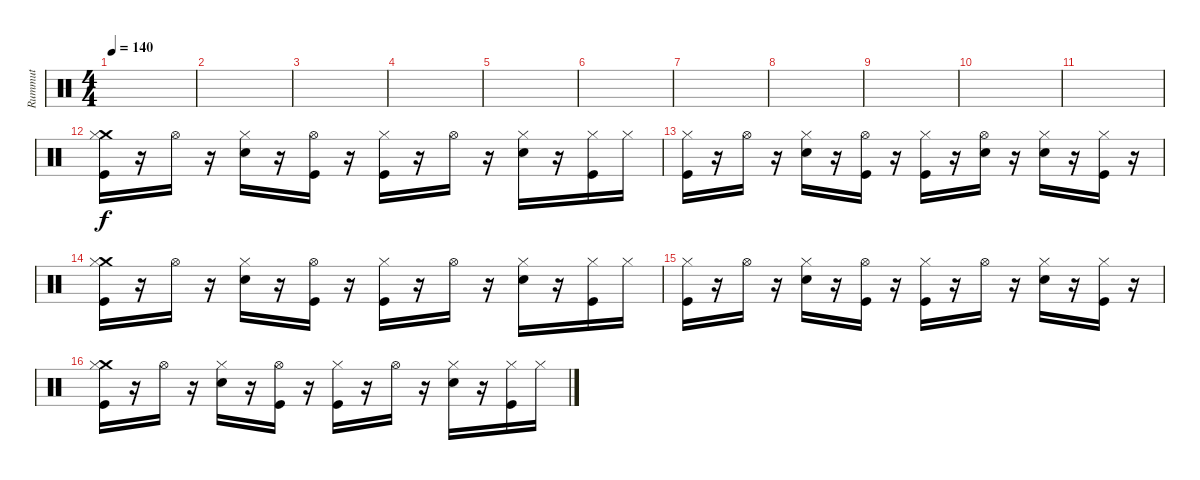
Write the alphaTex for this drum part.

\track ("Rummut" "Rummut") {instrument percussion}
\staff {score}
\articulation defaults
\ts (4 4)
\tempo 140
\clef neutral
\ks c
|
|
|
|
|
|
|
|
|
|
|
("Crash medium (hit)" "Hi-Hat (closed)" "Kick (hit)").16 r.16 "Hi-Hat (open)".16 r.16 ("Hi-Hat (closed)" "Snare (hit) 2").16 r.16 ("Hi-Hat (open)" "Kick (hit)").16 r.16 ("Hi-Hat (closed)" "Kick (hit)").16 r.16 "Hi-Hat (open)".16 r.16 ("Hi-Hat (closed)" "Snare (hit) 2").16 r.16 ("Hi-Hat (closed)" "Kick (hit)").16 "Hi-Hat (closed)".16 |
("Hi-Hat (closed)" "Kick (hit)").16 r.16 "Hi-Hat (open)".16 r.16 ("Hi-Hat (closed)" "Snare (hit) 2").16 r.16 ("Hi-Hat (open)" "Kick (hit)").16 r.16 ("Hi-Hat (closed)" "Kick (hit)").16 r.16 ("Hi-Hat (open)" "Snare (hit) 2").16 r.16 ("Hi-Hat (closed)" "Snare (hit) 2").16 r.16 ("Hi-Hat (closed)" "Kick (hit)").16 r.16 |
("Crash medium (hit)" "Hi-Hat (closed)" "Kick (hit)").16 r.16 "Hi-Hat (open)".16 r.16 ("Hi-Hat (closed)" "Snare (hit) 2").16 r.16 ("Hi-Hat (open)" "Kick (hit)").16 r.16 ("Hi-Hat (closed)" "Kick (hit)").16 r.16 "Hi-Hat (open)".16 r.16 ("Hi-Hat (closed)" "Snare (hit) 2").16 r.16 ("Hi-Hat (closed)" "Kick (hit)").16 "Hi-Hat (closed)".16 |
("Hi-Hat (closed)" "Kick (hit)").16 r.16 "Hi-Hat (open)".16 r.16 ("Hi-Hat (closed)" "Snare (hit) 2").16 r.16 ("Hi-Hat (open)" "Kick (hit)").16 r.16 ("Hi-Hat (closed)" "Kick (hit)").16 r.16 "Hi-Hat (open)".16 r.16 ("Hi-Hat (closed)" "Snare (hit) 2").16 r.16 ("Hi-Hat (closed)" "Kick (hit)").16 r.16 |
("Crash medium (hit)" "Hi-Hat (closed)" "Kick (hit)").16 r.16 "Hi-Hat (open)".16 r.16 ("Hi-Hat (closed)" "Snare (hit) 2").16 r.16 ("Hi-Hat (open)" "Kick (hit)").16 r.16 ("Hi-Hat (closed)" "Kick (hit)").16 r.16 "Hi-Hat (open)".16 r.16 ("Hi-Hat (closed)" "Snare (hit) 2").16 r.16 ("Hi-Hat (closed)" "Kick (hit)").16 "Hi-Hat (closed)".16
